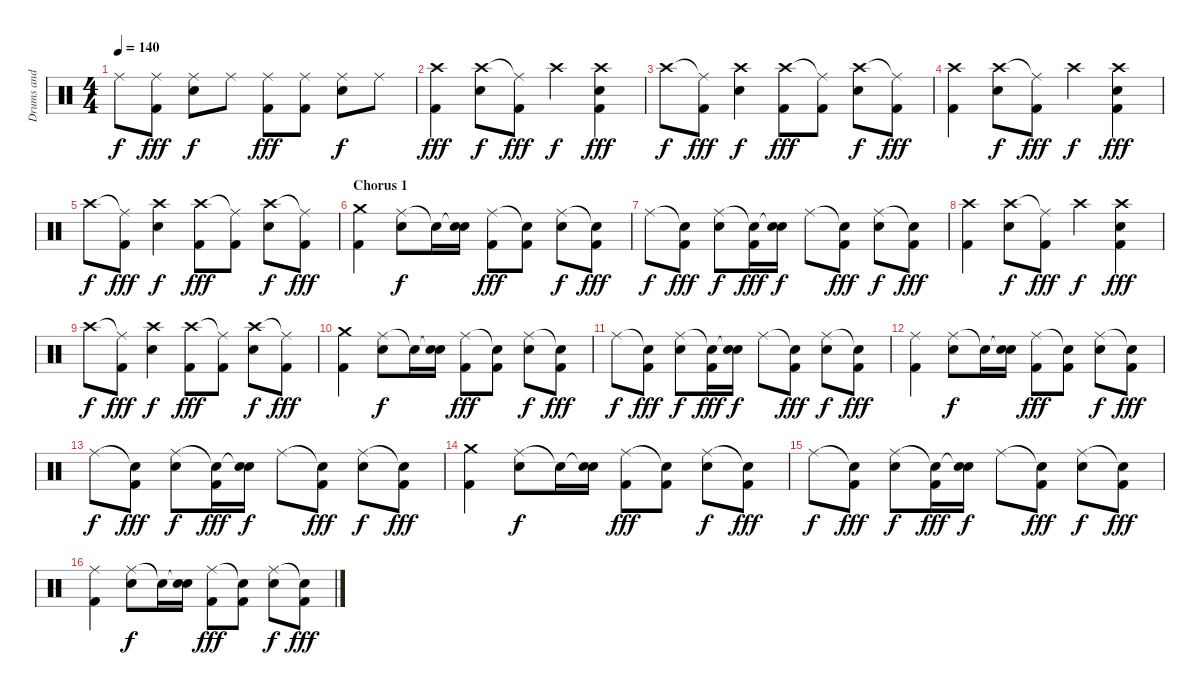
\track ("Drums and Percussion" "Drums and ") {instrument percussion}
\staff {score}
\articulation defaults
\ts (4 4)
\tempo 140
\clef neutral
\ks c "Ride (middle)".8{dy f}
("Ride (middle)" "Kick (hit) 2").8{dy fff} ("Ride (middle)" "Snare (hit) 2").8{dy f} "Ride (middle)".8 ("Ride (middle)" "Kick (hit) 2").8{dy fff} ("Ride (middle)" "Kick (hit) 2").8 ("Ride (middle)" "Snare (hit) 2").8{dy f} "Ride (middle)".8 |
("Crash high (hit)" "Kick (hit) 2").4{dy fff} ("Crash high (hit)" "Snare (hit) 2").8{dy f} ("Ride (middle)"{t} "Kick (hit) 2").8{dy fff} "Crash high (hit)".4{dy f} ("Crash high (hit)" "Snare (hit) 2" "Kick (hit) 2").4{dy fff} |
"Crash high (hit)".8{dy f} ("Ride (middle)"{t} "Kick (hit) 2").8{dy fff} ("Crash high (hit)" "Snare (hit) 2").4{dy f} ("Crash high (hit)" "Kick (hit) 2").8{dy fff} ("Ride (middle)"{t} "Kick (hit) 2").8 ("Crash high (hit)" "Snare (hit) 2").8{dy f} ("Ride (middle)"{t} "Kick (hit) 2").8{dy fff} |
("Crash high (hit)" "Kick (hit) 2").4 ("Crash high (hit)" "Snare (hit) 2").8{dy f} ("Ride (middle)"{t} "Kick (hit) 2").8{dy fff} "Crash high (hit)".4{dy f} ("Crash high (hit)" "Snare (hit) 2" "Kick (hit) 2").4{dy fff} |
"Crash high (hit)".8{dy f} ("Ride (middle)"{t} "Kick (hit) 2").8{dy fff} ("Crash high (hit)" "Snare (hit) 2").4{dy f} ("Crash high (hit)" "Kick (hit) 2").8{dy fff} ("Ride (middle)"{t} "Kick (hit) 2").8 ("Crash high (hit)" "Snare (hit) 2").8{dy f} ("Ride (middle)"{t} "Kick (hit) 2").8{dy fff} |
\section ("" "Chorus 1")
("Crash medium (hit)" "Kick (hit) 2").4 ("Ride (middle)" "Snare (hit) 2").8{dy f} "Snare (hit)"{t}.16 ("Snare (hit)"{t} "Snare (hit) 2").16 ("Ride (middle)" "Kick (hit) 2").8{dy fff} ("Snare (hit)"{t} "Kick (hit) 2").8 ("Ride (middle)" "Snare (hit) 2").8{dy f} ("Snare (hit)"{t} "Kick (hit) 2").8{dy fff} |
"Ride (middle)".8{dy f} ("Snare (hit)"{t} "Kick (hit) 2").8{dy fff} ("Ride (middle)" "Snare (hit) 2").8{dy f} ("Snare (hit)"{t} "Kick (hit) 2").16{dy fff} ("Snare (hit)"{t} "Snare (hit) 2").16{dy f} "Ride (middle)".8 ("Snare (hit)"{t} "Kick (hit) 2").8{dy fff} ("Ride (middle)" "Snare (hit) 2").8{dy f} ("Snare (hit)"{t} "Kick (hit) 2").8{dy fff} |
("Crash high (hit)" "Kick (hit) 2").4 ("Crash high (hit)" "Snare (hit) 2").8{dy f} ("Ride (middle)"{t} "Kick (hit) 2").8{dy fff} "Crash high (hit)".4{dy f} ("Crash high (hit)" "Snare (hit) 2" "Kick (hit) 2").4{dy fff} |
"Crash high (hit)".8{dy f} ("Ride (middle)"{t} "Kick (hit) 2").8{dy fff} ("Crash high (hit)" "Snare (hit) 2").4{dy f} ("Crash high (hit)" "Kick (hit) 2").8{dy fff} ("Ride (middle)"{t} "Kick (hit) 2").8 ("Crash high (hit)" "Snare (hit) 2").8{dy f} ("Ride (middle)"{t} "Kick (hit) 2").8{dy fff} |
("Crash medium (hit)" "Kick (hit) 2").4 ("Ride (middle)" "Snare (hit) 2").8{dy f} "Snare (hit)"{t}.16 ("Snare (hit)"{t} "Snare (hit) 2").16 ("Ride (middle)" "Kick (hit) 2").8{dy fff} ("Snare (hit)"{t} "Kick (hit) 2").8 ("Ride (middle)" "Snare (hit) 2").8{dy f} ("Snare (hit)"{t} "Kick (hit) 2").8{dy fff} |
"Ride (middle)".8{dy f} ("Snare (hit)"{t} "Kick (hit) 2").8{dy fff} ("Ride (middle)" "Snare (hit) 2").8{dy f} ("Snare (hit)"{t} "Kick (hit) 2").16{dy fff} ("Snare (hit)"{t} "Snare (hit) 2").16{dy f} "Ride (middle)".8 ("Snare (hit)"{t} "Kick (hit) 2").8{dy fff} ("Ride (middle)" "Snare (hit) 2").8{dy f} ("Snare (hit)"{t} "Kick (hit) 2").8{dy fff} |
("Ride (middle)" "Kick (hit) 2").4 ("Ride (middle)" "Snare (hit) 2").8{dy f} "Snare (hit)"{t}.16 ("Snare (hit)"{t} "Snare (hit) 2").16 ("Ride (middle)" "Kick (hit) 2").8{dy fff} ("Snare (hit)"{t} "Kick (hit) 2").8 ("Ride (middle)" "Snare (hit) 2").8{dy f} ("Snare (hit)"{t} "Kick (hit) 2").8{dy fff} |
"Ride (middle)".8{dy f} ("Snare (hit)"{t} "Kick (hit) 2").8{dy fff} ("Ride (middle)" "Snare (hit) 2").8{dy f} ("Snare (hit)"{t} "Kick (hit) 2").16{dy fff} ("Snare (hit)"{t} "Snare (hit) 2").16{dy f} "Ride (middle)".8 ("Snare (hit)"{t} "Kick (hit) 2").8{dy fff} ("Ride (middle)" "Snare (hit) 2").8{dy f} ("Snare (hit)"{t} "Kick (hit) 2").8{dy fff} |
("Crash medium (hit)" "Kick (hit) 2").4 ("Ride (middle)" "Snare (hit) 2").8{dy f} "Snare (hit)"{t}.16 ("Snare (hit)"{t} "Snare (hit) 2").16 ("Ride (middle)" "Kick (hit) 2").8{dy fff} ("Snare (hit)"{t} "Kick (hit) 2").8 ("Ride (middle)" "Snare (hit) 2").8{dy f} ("Snare (hit)"{t} "Kick (hit) 2").8{dy fff} |
"Ride (middle)".8{dy f} ("Snare (hit)"{t} "Kick (hit) 2").8{dy fff} ("Ride (middle)" "Snare (hit) 2").8{dy f} ("Snare (hit)"{t} "Kick (hit) 2").16{dy fff} ("Snare (hit)"{t} "Snare (hit) 2").16{dy f} "Ride (middle)".8 ("Snare (hit)"{t} "Kick (hit) 2").8{dy fff} ("Ride (middle)" "Snare (hit) 2").8{dy f} ("Snare (hit)"{t} "Kick (hit) 2").8{dy fff} |
("Ride (middle)" "Kick (hit) 2").4 ("Ride (middle)" "Snare (hit) 2").8{dy f} "Snare (hit)"{t}.16 ("Snare (hit)"{t} "Snare (hit) 2").16 ("Ride (middle)" "Kick (hit) 2").8{dy fff} ("Snare (hit)"{t} "Kick (hit) 2").8 ("Ride (middle)" "Snare (hit) 2").8{dy f} ("Snare (hit)"{t} "Kick (hit) 2").8{dy fff}
